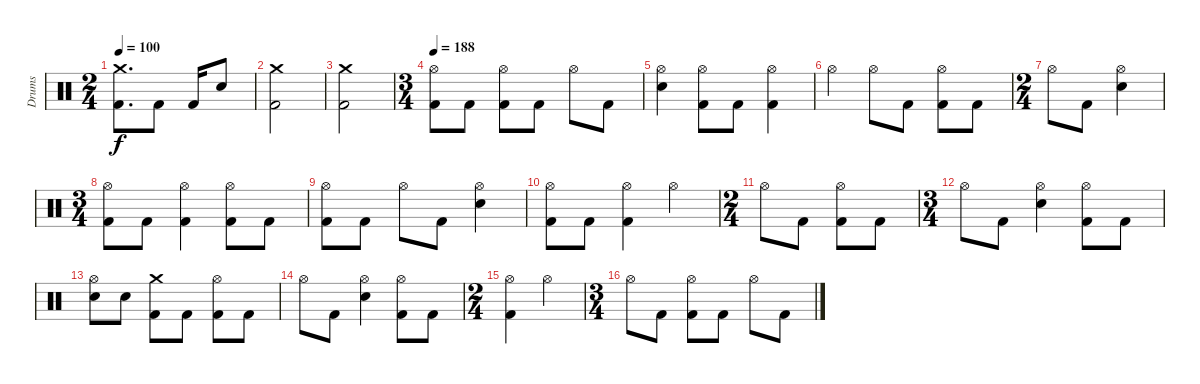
\track ("Drums" "Drums") {instrument percussion}
\staff {score}
\articulation defaults
\ts (2 4)
\tempo 100
\clef neutral
\ks c
("Crash medium (hit)" "Kick (hit) 2").8{d dy f} "Kick (hit) 2".8 "Kick (hit) 2".16 "Electric Snare (hit)".8 |
("Crash medium (hit)" "Kick (hit) 2").2 |
("Crash medium (hit)" "Kick (hit) 2").2 |
\ts (3 4)
\tempo 188
("Hi-Hat (open)" "Kick (hit) 2").8 "Kick (hit) 2".8 ("Hi-Hat (open)" "Kick (hit) 2").8 "Kick (hit) 2".8 "Hi-Hat (open)".8 "Kick (hit) 2".8 |
("Electric Snare (hit)" "Hi-Hat (open)").4 ("Hi-Hat (open)" "Kick (hit) 2").8 "Kick (hit) 2".8 ("Hi-Hat (open)" "Kick (hit) 2").4 |
"Hi-Hat (open)".4 "Hi-Hat (open)".8 "Kick (hit) 2".8 ("Hi-Hat (open)" "Kick (hit) 2").8 "Kick (hit) 2".8 |
\ts (2 4)
"Hi-Hat (open)".8 "Kick (hit) 2".8 ("Electric Snare (hit)" "Hi-Hat (open)").4 |
\ts (3 4)
("Hi-Hat (open)" "Kick (hit) 2").8 "Kick (hit) 2".8 ("Hi-Hat (open)" "Kick (hit) 2").4 ("Hi-Hat (open)" "Kick (hit) 2").8 "Kick (hit) 2".8 |
("Hi-Hat (open)" "Kick (hit) 2").8 "Kick (hit) 2".8 "Hi-Hat (open)".8 "Kick (hit) 2".8 ("Electric Snare (hit)" "Hi-Hat (open)").4 |
("Hi-Hat (open)" "Kick (hit) 2").8 "Kick (hit) 2".8 ("Hi-Hat (open)" "Kick (hit) 2").4 "Hi-Hat (open)".4 |
\ts (2 4)
"Hi-Hat (open)".8 "Kick (hit) 2".8 ("Hi-Hat (open)" "Kick (hit) 2").8 "Kick (hit) 2".8 |
\ts (3 4)
"Hi-Hat (open)".8 "Kick (hit) 2".8 ("Electric Snare (hit)" "Hi-Hat (open)").4 ("Hi-Hat (open)" "Kick (hit) 2").8 "Kick (hit) 2".8 |
("Electric Snare (hit)" "Hi-Hat (open)").8 "Electric Snare (hit)".8 ("Crash medium (hit)" "Kick (hit) 2").8 "Kick (hit) 2".8 ("Hi-Hat (open)" "Kick (hit) 2").8 "Kick (hit) 2".8 |
"Hi-Hat (open)".8 "Kick (hit) 2".8 ("Electric Snare (hit)" "Hi-Hat (open)").4 ("Hi-Hat (open)" "Kick (hit) 2").8 "Kick (hit) 2".8 |
\ts (2 4)
("Hi-Hat (open)" "Kick (hit) 2").4 "Hi-Hat (open)".4 |
\ts (3 4)
"Hi-Hat (open)".8 "Kick (hit) 2".8 ("Hi-Hat (open)" "Kick (hit) 2").8 "Kick (hit) 2".8 "Hi-Hat (open)".8 "Kick (hit) 2".8
